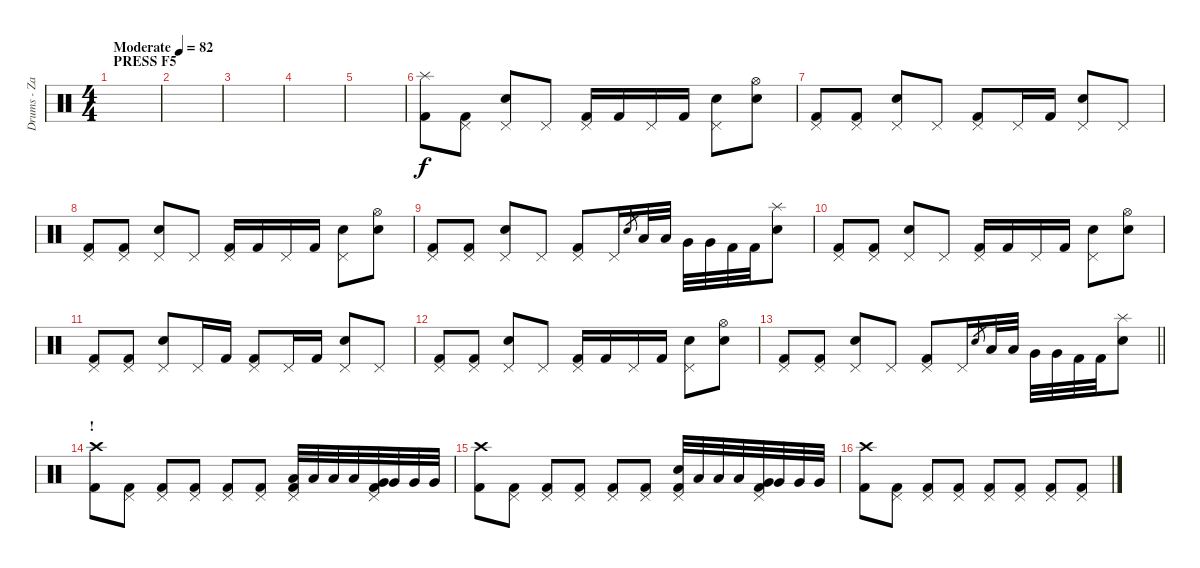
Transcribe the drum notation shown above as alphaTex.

\track ("Drums - Zac Farro" "Drums - Za") {instrument percussion}
\staff {score}
\articulation defaults
\ts (4 4)
\section ("" "PRESS F5")
\tempo (82 "Moderate")
\clef neutral
\ks c
|
|
|
|
|
("Splash (hit)" "Kick (hit) 2").8 ("Pedal Hi-Hat (hit)" "Kick (hit) 2").8 ("Pedal Hi-Hat (hit)" "Snare (hit) 2").8 "Pedal Hi-Hat (hit)".8 ("Pedal Hi-Hat (hit)" "Kick (hit) 2").16 "Kick (hit) 2".16 "Pedal Hi-Hat (hit)".16 "Kick (hit) 2".16 ("Pedal Hi-Hat (hit)" "Snare (hit) 2").8 ("Hi-Hat (open)" "Snare (hit) 2").8 |
("Pedal Hi-Hat (hit)" "Kick (hit) 2").8 ("Pedal Hi-Hat (hit)" "Kick (hit) 2").8 ("Pedal Hi-Hat (hit)" "Snare (hit) 2").8 "Pedal Hi-Hat (hit)".8 ("Pedal Hi-Hat (hit)" "Kick (hit) 2").8 "Pedal Hi-Hat (hit)".16 "Kick (hit) 2".16 ("Pedal Hi-Hat (hit)" "Snare (hit) 2").8 "Pedal Hi-Hat (hit)".8 |
("Pedal Hi-Hat (hit)" "Kick (hit) 2").8 ("Pedal Hi-Hat (hit)" "Kick (hit) 2").8 ("Pedal Hi-Hat (hit)" "Snare (hit) 2").8 "Pedal Hi-Hat (hit)".8 ("Pedal Hi-Hat (hit)" "Kick (hit) 2").16 "Kick (hit) 2".16 "Pedal Hi-Hat (hit)".16 "Kick (hit) 2".16 ("Pedal Hi-Hat (hit)" "Snare (hit) 2").8 ("Hi-Hat (open)" "Snare (hit) 2").8 |
("Pedal Hi-Hat (hit)" "Kick (hit) 2").8 ("Pedal Hi-Hat (hit)" "Kick (hit) 2").8 ("Pedal Hi-Hat (hit)" "Snare (hit) 2").8 "Pedal Hi-Hat (hit)".8 ("Pedal Hi-Hat (hit)" "Kick (hit) 2").8 "Pedal Hi-Hat (hit)".16 "Snare (hit) 2".8{gr} "Low Tom (hit)".32 "Low Tom (hit)".32 "Very Low Tom (hit)".32 "Very Low Tom (hit)".32 "Kick (hit) 2".32 "Kick (hit) 2".32 ("Splash (hit)" "Snare (hit) 2").8 |
("Pedal Hi-Hat (hit)" "Kick (hit) 2").8 ("Pedal Hi-Hat (hit)" "Kick (hit) 2").8 ("Pedal Hi-Hat (hit)" "Snare (hit) 2").8 "Pedal Hi-Hat (hit)".8 ("Pedal Hi-Hat (hit)" "Kick (hit) 2").16 "Kick (hit) 2".16 "Pedal Hi-Hat (hit)".16 "Kick (hit) 2".16 ("Pedal Hi-Hat (hit)" "Snare (hit) 2").8 ("Hi-Hat (open)" "Snare (hit) 2").8 |
("Pedal Hi-Hat (hit)" "Kick (hit) 2").8 ("Pedal Hi-Hat (hit)" "Kick (hit) 2").8 ("Pedal Hi-Hat (hit)" "Snare (hit) 2").8 "Pedal Hi-Hat (hit)".16 "Kick (hit) 2".16 ("Pedal Hi-Hat (hit)" "Kick (hit) 2").8 "Pedal Hi-Hat (hit)".16 "Kick (hit) 2".16 ("Pedal Hi-Hat (hit)" "Snare (hit) 2").8 "Pedal Hi-Hat (hit)".8 |
("Pedal Hi-Hat (hit)" "Kick (hit) 2").8 ("Pedal Hi-Hat (hit)" "Kick (hit) 2").8 ("Pedal Hi-Hat (hit)" "Snare (hit) 2").8 "Pedal Hi-Hat (hit)".8 ("Pedal Hi-Hat (hit)" "Kick (hit) 2").16 "Kick (hit) 2".16 "Pedal Hi-Hat (hit)".16 "Kick (hit) 2".16 ("Pedal Hi-Hat (hit)" "Snare (hit) 2").8 ("Hi-Hat (open)" "Snare (hit) 2").8 |
\barLineRight lightlight
("Pedal Hi-Hat (hit)" "Kick (hit) 2").8 ("Pedal Hi-Hat (hit)" "Kick (hit) 2").8 ("Pedal Hi-Hat (hit)" "Snare (hit) 2").8 "Pedal Hi-Hat (hit)".8 ("Pedal Hi-Hat (hit)" "Kick (hit) 2").8 "Pedal Hi-Hat (hit)".16 "Snare (hit) 2".8{gr} "Low Tom (hit)".32 "Low Tom (hit)".32 "Very Low Tom (hit)".32 "Very Low Tom (hit)".32 "Kick (hit) 2".32 "Kick (hit) 2".32 ("Splash (hit)" "Snare (hit) 2").8 |
\section ("" "!")
("Crash high (hit)" "Kick (hit) 2").8 ("Pedal Hi-Hat (hit)" "Kick (hit) 2").8 ("Pedal Hi-Hat (hit)" "Kick (hit) 2").8 ("Pedal Hi-Hat (hit)" "Kick (hit) 2").8 ("Pedal Hi-Hat (hit)" "Kick (hit) 2").8 ("Pedal Hi-Hat (hit)" "Kick (hit) 2").8 ("Pedal Hi-Hat (hit)" "Kick (hit) 2" "Low Tom (hit)").32 "Low Tom (hit)".32 "Low Tom (hit)".32 "Low Tom (hit)".32 ("Pedal Hi-Hat (hit)" "Kick (hit) 2" "Very Low Tom (hit)").32 "Very Low Tom (hit)".32 "Very Low Tom (hit)".32 "Very Low Tom (hit)".32 |
("Crash high (hit)" "Kick (hit) 2").8 ("Pedal Hi-Hat (hit)" "Kick (hit) 2").8 ("Pedal Hi-Hat (hit)" "Kick (hit) 2").8 ("Pedal Hi-Hat (hit)" "Kick (hit) 2").8 ("Pedal Hi-Hat (hit)" "Kick (hit) 2").8 ("Pedal Hi-Hat (hit)" "Kick (hit) 2").8 ("Pedal Hi-Hat (hit)" "Kick (hit) 2" "Snare (hit) 2").32 "Low Tom (hit)".32 "Low Tom (hit)".32 "Low Tom (hit)".32 ("Pedal Hi-Hat (hit)" "Kick (hit) 2" "Very Low Tom (hit)").32 "Very Low Tom (hit)".32 "Very Low Tom (hit)".32 "Very Low Tom (hit)".32 |
("Crash high (hit)" "Kick (hit) 2").8 ("Pedal Hi-Hat (hit)" "Kick (hit) 2").8 ("Pedal Hi-Hat (hit)" "Kick (hit) 2").8 ("Pedal Hi-Hat (hit)" "Kick (hit) 2").8 ("Pedal Hi-Hat (hit)" "Kick (hit) 2").8 ("Pedal Hi-Hat (hit)" "Kick (hit) 2").8 ("Pedal Hi-Hat (hit)" "Kick (hit) 2").8 ("Pedal Hi-Hat (hit)" "Kick (hit) 2").8
